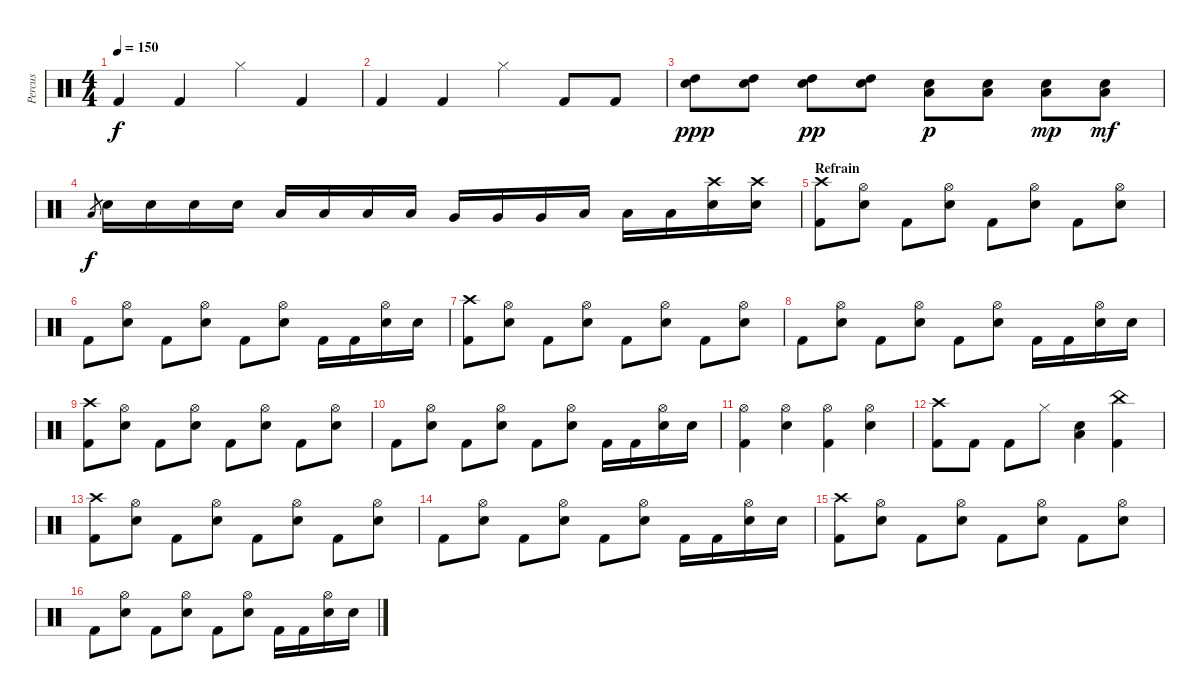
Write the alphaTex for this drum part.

\track ("Percus" "Percus") {instrument percussion}
\staff {score}
\articulation defaults
\ts (4 4)
\tempo 150
\clef neutral
\ks c "Kick (hit) 2".4{dy f} "Kick (hit) 2".4 "Hi-Hat (closed)".4 "Kick (hit) 2".4
|
"Kick (hit) 2".4 "Kick (hit) 2".4 "Hi-Hat (closed)".4 "Kick (hit) 2".8 "Kick (hit) 2".8 |
("Electric Snare (hit)" "High Tom (hit)").8{dy ppp} ("Electric Snare (hit)" "High Tom (hit)").8 ("Electric Snare (hit)" "High Tom (hit)").8{dy pp} ("Electric Snare (hit)" "High Tom (hit)").8 ("Electric Snare (hit)" "Low Tom (hit)").8{dy p} ("Electric Snare (hit)" "Low Tom (hit)").8 ("Electric Snare (hit)" "Low Tom (hit)").8{dy mp} ("Electric Snare (hit)" "Low Tom (hit)").8{dy mf} |
"Low Tom (hit)".8{gr dy f} "Electric Snare (hit)".16 "Electric Snare (hit)".16 "Electric Snare (hit)".16 "Electric Snare (hit)".16 "Low Tom (hit)".16 "Low Tom (hit)".16 "Low Tom (hit)".16 "Low Tom (hit)".16 "Very Low Tom (hit)".16 "Very Low Tom (hit)".16 "Very Low Tom (hit)".16 "Low Floor Tom (hit)".16 "Low Floor Tom (hit)".16 "Low Floor Tom (hit)".16 ("Crash high (hit)" "Electric Snare (hit)").16 ("Crash high (hit)" "Electric Snare (hit)").16 |
\section ("" "Refrain")
("Crash high (hit)" "Kick (hit) 2").8 ("Hi-Hat (open)" "Snare (hit) 2").8 "Kick (hit) 2".8 ("Hi-Hat (open)" "Snare (hit) 2").8 "Kick (hit) 2".8 ("Hi-Hat (open)" "Snare (hit) 2").8 "Kick (hit) 2".8 ("Hi-Hat (open)" "Snare (hit) 2").8 |
"Kick (hit) 2".8 ("Hi-Hat (open)" "Snare (hit) 2").8 "Kick (hit) 2".8 ("Hi-Hat (open)" "Snare (hit) 2").8 "Kick (hit) 2".8 ("Hi-Hat (open)" "Snare (hit) 2").8 "Kick (hit) 2".16 "Kick (hit) 2".16 ("Hi-Hat (open)" "Snare (hit) 2").16 "Snare (hit) 2".16 |
("Crash high (hit)" "Kick (hit) 2").8 ("Hi-Hat (open)" "Snare (hit) 2").8 "Kick (hit) 2".8 ("Hi-Hat (open)" "Snare (hit) 2").8 "Kick (hit) 2".8 ("Hi-Hat (open)" "Snare (hit) 2").8 "Kick (hit) 2".8 ("Hi-Hat (open)" "Snare (hit) 2").8 |
"Kick (hit) 2".8 ("Hi-Hat (open)" "Snare (hit) 2").8 "Kick (hit) 2".8 ("Hi-Hat (open)" "Snare (hit) 2").8 "Kick (hit) 2".8 ("Hi-Hat (open)" "Snare (hit) 2").8 "Kick (hit) 2".16 "Kick (hit) 2".16 ("Hi-Hat (open)" "Snare (hit) 2").16 "Snare (hit) 2".16 |
("Crash high (hit)" "Kick (hit) 2").8 ("Hi-Hat (open)" "Snare (hit) 2").8 "Kick (hit) 2".8 ("Hi-Hat (open)" "Snare (hit) 2").8 "Kick (hit) 2".8 ("Hi-Hat (open)" "Snare (hit) 2").8 "Kick (hit) 2".8 ("Hi-Hat (open)" "Snare (hit) 2").8 |
"Kick (hit) 2".8 ("Hi-Hat (open)" "Snare (hit) 2").8 "Kick (hit) 2".8 ("Hi-Hat (open)" "Snare (hit) 2").8 "Kick (hit) 2".8 ("Hi-Hat (open)" "Snare (hit) 2").8 "Kick (hit) 2".16 "Kick (hit) 2".16 ("Hi-Hat (open)" "Snare (hit) 2").16 "Snare (hit) 2".16 |
("Hi-Hat (open)" "Kick (hit) 2").4 ("Hi-Hat (open)" "Snare (hit) 2").4 ("Hi-Hat (open)" "Kick (hit) 2").4 ("Hi-Hat (open)" "Snare (hit) 2").4 |
("Kick (hit) 2" "Crash high (hit)").8 "Kick (hit) 2".8 "Kick (hit) 2".8 "Hi-Hat (closed)".8 ("Snare (hit) 2" "Low Floor Tom (hit)").4 ("China (hit)" "Kick (hit) 2").4 |
("Crash high (hit)" "Kick (hit) 2").8 ("Hi-Hat (open)" "Snare (hit) 2").8 "Kick (hit) 2".8 ("Hi-Hat (open)" "Snare (hit) 2").8 "Kick (hit) 2".8 ("Hi-Hat (open)" "Snare (hit) 2").8 "Kick (hit) 2".8 ("Hi-Hat (open)" "Snare (hit) 2").8 |
"Kick (hit) 2".8 ("Hi-Hat (open)" "Snare (hit) 2").8 "Kick (hit) 2".8 ("Hi-Hat (open)" "Snare (hit) 2").8 "Kick (hit) 2".8 ("Hi-Hat (open)" "Snare (hit) 2").8 "Kick (hit) 2".16 "Kick (hit) 2".16 ("Hi-Hat (open)" "Snare (hit) 2").16 "Snare (hit) 2".16 |
("Crash high (hit)" "Kick (hit) 2").8 ("Hi-Hat (open)" "Snare (hit) 2").8 "Kick (hit) 2".8 ("Hi-Hat (open)" "Snare (hit) 2").8 "Kick (hit) 2".8 ("Hi-Hat (open)" "Snare (hit) 2").8 "Kick (hit) 2".8 ("Hi-Hat (open)" "Snare (hit) 2").8 |
"Kick (hit) 2".8 ("Hi-Hat (open)" "Snare (hit) 2").8 "Kick (hit) 2".8 ("Hi-Hat (open)" "Snare (hit) 2").8 "Kick (hit) 2".8 ("Hi-Hat (open)" "Snare (hit) 2").8 "Kick (hit) 2".16 "Kick (hit) 2".16 ("Hi-Hat (open)" "Snare (hit) 2").16 "Snare (hit) 2".16
